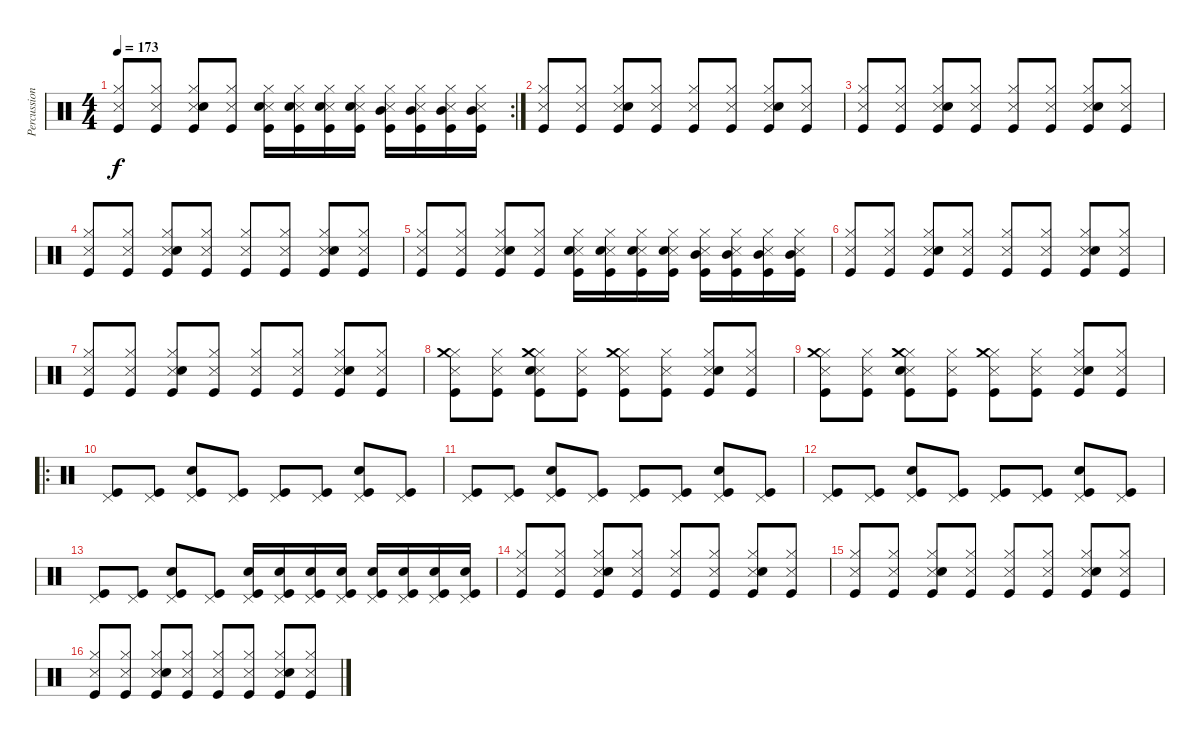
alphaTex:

\track ("Percussion" "Percussion") {instrument percussion}
\staff {score}
\articulation defaults
\rc 2
\ts (4 4)
\tempo 173
\clef neutral
\ks c
("Snare (side stick) 3" "Hi-Hat (closed)" "Kick (hit)").8{dy f} ("Snare (side stick) 3" "Hi-Hat (closed)" "Kick (hit)").8 ("Snare (side stick) 3" "Hi-Hat (closed)" "Snare (hit) 2" "Kick (hit)").8 ("Snare (side stick) 3" "Hi-Hat (closed)" "Kick (hit)").8 ("Snare (side stick) 3" "Hi-Hat (closed)" "Snare (hit) 2" "Kick (hit)").16 ("Snare (side stick) 3" "Hi-Hat (closed)" "Snare (hit) 2" "Kick (hit)").16 ("Snare (side stick) 3" "Hi-Hat (closed)" "Snare (hit) 2" "Kick (hit)").16 ("Snare (side stick) 3" "Hi-Hat (closed)" "Snare (hit) 2" "Kick (hit)").16 ("Snare (side stick) 3" "Hi-Hat (closed)" "Mid Tom (hit)" "Kick (hit)").16 ("Snare (side stick) 3" "Hi-Hat (closed)" "Mid Tom (hit)" "Kick (hit)").16 ("Snare (side stick) 3" "Hi-Hat (closed)" "Mid Tom (hit)" "Kick (hit)").16 ("Snare (side stick) 3" "Hi-Hat (closed)" "Mid Tom (hit)" "Kick (hit)").16 |
("Snare (side stick) 3" "Hi-Hat (closed)" "Kick (hit)").8 ("Snare (side stick) 3" "Hi-Hat (closed)" "Kick (hit)").8 ("Snare (side stick) 3" "Hi-Hat (closed)" "Snare (hit) 2" "Kick (hit)").8 ("Snare (side stick) 3" "Hi-Hat (closed)" "Kick (hit)").8 ("Snare (side stick) 3" "Hi-Hat (closed)" "Kick (hit)").8 ("Snare (side stick) 3" "Hi-Hat (closed)" "Kick (hit)").8 ("Snare (side stick) 3" "Hi-Hat (closed)" "Snare (hit) 2" "Kick (hit)").8 ("Snare (side stick) 3" "Hi-Hat (closed)" "Kick (hit)").8 |
("Snare (side stick) 3" "Hi-Hat (closed)" "Kick (hit)").8 ("Snare (side stick) 3" "Hi-Hat (closed)" "Kick (hit)").8 ("Snare (side stick) 3" "Hi-Hat (closed)" "Snare (hit) 2" "Kick (hit)").8 ("Snare (side stick) 3" "Hi-Hat (closed)" "Kick (hit)").8 ("Snare (side stick) 3" "Hi-Hat (closed)" "Kick (hit)").8 ("Snare (side stick) 3" "Hi-Hat (closed)" "Kick (hit)").8 ("Snare (side stick) 3" "Hi-Hat (closed)" "Snare (hit) 2" "Kick (hit)").8 ("Snare (side stick) 3" "Hi-Hat (closed)" "Kick (hit)").8 |
("Snare (side stick) 3" "Hi-Hat (closed)" "Kick (hit)").8 ("Snare (side stick) 3" "Hi-Hat (closed)" "Kick (hit)").8 ("Snare (side stick) 3" "Hi-Hat (closed)" "Snare (hit) 2" "Kick (hit)").8 ("Snare (side stick) 3" "Hi-Hat (closed)" "Kick (hit)").8 ("Snare (side stick) 3" "Hi-Hat (closed)" "Kick (hit)").8 ("Snare (side stick) 3" "Hi-Hat (closed)" "Kick (hit)").8 ("Snare (side stick) 3" "Hi-Hat (closed)" "Snare (hit) 2" "Kick (hit)").8 ("Snare (side stick) 3" "Hi-Hat (closed)" "Kick (hit)").8 |
("Snare (side stick) 3" "Hi-Hat (closed)" "Kick (hit)").8 ("Snare (side stick) 3" "Hi-Hat (closed)" "Kick (hit)").8 ("Snare (side stick) 3" "Hi-Hat (closed)" "Snare (hit) 2" "Kick (hit)").8 ("Snare (side stick) 3" "Hi-Hat (closed)" "Kick (hit)").8 ("Snare (side stick) 3" "Hi-Hat (closed)" "Snare (hit) 2" "Kick (hit)").16 ("Snare (side stick) 3" "Hi-Hat (closed)" "Snare (hit) 2" "Kick (hit)").16 ("Snare (side stick) 3" "Hi-Hat (closed)" "Snare (hit) 2" "Kick (hit)").16 ("Snare (side stick) 3" "Hi-Hat (closed)" "Snare (hit) 2" "Kick (hit)").16 ("Snare (side stick) 3" "Hi-Hat (closed)" "Mid Tom (hit)" "Kick (hit)").16 ("Snare (side stick) 3" "Hi-Hat (closed)" "Mid Tom (hit)" "Kick (hit)").16 ("Snare (side stick) 3" "Hi-Hat (closed)" "Mid Tom (hit)" "Kick (hit)").16 ("Snare (side stick) 3" "Hi-Hat (closed)" "Mid Tom (hit)" "Kick (hit)").16 |
("Snare (side stick) 3" "Hi-Hat (closed)" "Kick (hit)").8 ("Snare (side stick) 3" "Hi-Hat (closed)" "Kick (hit)").8 ("Snare (side stick) 3" "Hi-Hat (closed)" "Snare (hit) 2" "Kick (hit)").8 ("Snare (side stick) 3" "Hi-Hat (closed)" "Kick (hit)").8 ("Snare (side stick) 3" "Hi-Hat (closed)" "Kick (hit)").8 ("Snare (side stick) 3" "Hi-Hat (closed)" "Kick (hit)").8 ("Snare (side stick) 3" "Hi-Hat (closed)" "Snare (hit) 2" "Kick (hit)").8 ("Snare (side stick) 3" "Hi-Hat (closed)" "Kick (hit)").8 |
("Snare (side stick) 3" "Hi-Hat (closed)" "Kick (hit)").8 ("Snare (side stick) 3" "Hi-Hat (closed)" "Kick (hit)").8 ("Snare (side stick) 3" "Hi-Hat (closed)" "Snare (hit) 2" "Kick (hit)").8 ("Snare (side stick) 3" "Hi-Hat (closed)" "Kick (hit)").8 ("Snare (side stick) 3" "Hi-Hat (closed)" "Kick (hit)").8 ("Snare (side stick) 3" "Hi-Hat (closed)" "Kick (hit)").8 ("Snare (side stick) 3" "Hi-Hat (closed)" "Snare (hit) 2" "Kick (hit)").8 ("Snare (side stick) 3" "Hi-Hat (closed)" "Kick (hit)").8 |
("Snare (side stick) 3" "Hi-Hat (closed)" "Crash medium (hit)" "Kick (hit)").8 ("Snare (side stick) 3" "Hi-Hat (closed)" "Kick (hit)").8 ("Snare (side stick) 3" "Hi-Hat (closed)" "Crash medium (hit)" "Snare (hit) 2" "Kick (hit)").8 ("Snare (side stick) 3" "Hi-Hat (closed)" "Kick (hit)").8 ("Snare (side stick) 3" "Hi-Hat (closed)" "Crash medium (hit)" "Kick (hit)").8 ("Snare (side stick) 3" "Hi-Hat (closed)" "Kick (hit)").8 ("Snare (side stick) 3" "Hi-Hat (closed)" "Snare (hit) 2" "Kick (hit)").8 ("Snare (side stick) 3" "Hi-Hat (closed)" "Kick (hit)").8 |
("Snare (side stick) 3" "Hi-Hat (closed)" "Crash medium (hit)" "Kick (hit)").8 ("Snare (side stick) 3" "Hi-Hat (closed)" "Kick (hit)").8 ("Snare (side stick) 3" "Hi-Hat (closed)" "Crash medium (hit)" "Snare (hit) 2" "Kick (hit)").8 ("Snare (side stick) 3" "Hi-Hat (closed)" "Kick (hit)").8 ("Snare (side stick) 3" "Hi-Hat (closed)" "Crash medium (hit)" "Kick (hit)").8 ("Snare (side stick) 3" "Hi-Hat (closed)" "Kick (hit)").8 ("Snare (side stick) 3" "Hi-Hat (closed)" "Snare (hit) 2" "Kick (hit)").8 ("Snare (side stick) 3" "Hi-Hat (closed)" "Kick (hit)").8 |
\ro
("Pedal Hi-Hat (hit)" "Kick (hit)").8 ("Pedal Hi-Hat (hit)" "Kick (hit)").8 ("Pedal Hi-Hat (hit)" "Snare (hit) 2" "Kick (hit)").8 ("Pedal Hi-Hat (hit)" "Kick (hit)").8 ("Pedal Hi-Hat (hit)" "Kick (hit)").8 ("Pedal Hi-Hat (hit)" "Kick (hit)").8 ("Pedal Hi-Hat (hit)" "Snare (hit) 2" "Kick (hit)").8 ("Pedal Hi-Hat (hit)" "Kick (hit)").8 |
("Pedal Hi-Hat (hit)" "Kick (hit)").8 ("Pedal Hi-Hat (hit)" "Kick (hit)").8 ("Pedal Hi-Hat (hit)" "Snare (hit) 2" "Kick (hit)").8 ("Pedal Hi-Hat (hit)" "Kick (hit)").8 ("Pedal Hi-Hat (hit)" "Kick (hit)").8 ("Pedal Hi-Hat (hit)" "Kick (hit)").8 ("Pedal Hi-Hat (hit)" "Snare (hit) 2" "Kick (hit)").8 ("Pedal Hi-Hat (hit)" "Kick (hit)").8 |
("Pedal Hi-Hat (hit)" "Kick (hit)").8 ("Pedal Hi-Hat (hit)" "Kick (hit)").8 ("Pedal Hi-Hat (hit)" "Snare (hit) 2" "Kick (hit)").8 ("Pedal Hi-Hat (hit)" "Kick (hit)").8 ("Pedal Hi-Hat (hit)" "Kick (hit)").8 ("Pedal Hi-Hat (hit)" "Kick (hit)").8 ("Pedal Hi-Hat (hit)" "Snare (hit) 2" "Kick (hit)").8 ("Pedal Hi-Hat (hit)" "Kick (hit)").8 |
("Pedal Hi-Hat (hit)" "Kick (hit)").8 ("Pedal Hi-Hat (hit)" "Kick (hit)").8 ("Pedal Hi-Hat (hit)" "Snare (hit) 2" "Kick (hit)").8 ("Pedal Hi-Hat (hit)" "Kick (hit)").8 ("Pedal Hi-Hat (hit)" "Snare (hit) 2" "Kick (hit)").16 ("Pedal Hi-Hat (hit)" "Snare (hit) 2" "Kick (hit)").16 ("Pedal Hi-Hat (hit)" "Snare (hit) 2" "Kick (hit)").16 ("Pedal Hi-Hat (hit)" "Snare (hit) 2" "Kick (hit)").16 ("Pedal Hi-Hat (hit)" "Snare (hit) 2" "Kick (hit)").16 ("Pedal Hi-Hat (hit)" "Snare (hit) 2" "Kick (hit)").16 ("Pedal Hi-Hat (hit)" "Snare (hit) 2" "Kick (hit)").16 ("Pedal Hi-Hat (hit)" "Snare (hit) 2" "Kick (hit)").16 |
("Snare (side stick) 3" "Hi-Hat (closed)" "Kick (hit)").8 ("Snare (side stick) 3" "Hi-Hat (closed)" "Kick (hit)").8 ("Snare (side stick) 3" "Hi-Hat (closed)" "Snare (hit) 2" "Kick (hit)").8 ("Snare (side stick) 3" "Hi-Hat (closed)" "Kick (hit)").8 ("Snare (side stick) 3" "Hi-Hat (closed)" "Kick (hit)").8 ("Snare (side stick) 3" "Hi-Hat (closed)" "Kick (hit)").8 ("Snare (side stick) 3" "Hi-Hat (closed)" "Snare (hit) 2" "Kick (hit)").8 ("Snare (side stick) 3" "Hi-Hat (closed)" "Kick (hit)").8 |
("Snare (side stick) 3" "Hi-Hat (closed)" "Kick (hit)").8 ("Snare (side stick) 3" "Hi-Hat (closed)" "Kick (hit)").8 ("Snare (side stick) 3" "Hi-Hat (closed)" "Snare (hit) 2" "Kick (hit)").8 ("Snare (side stick) 3" "Hi-Hat (closed)" "Kick (hit)").8 ("Snare (side stick) 3" "Hi-Hat (closed)" "Kick (hit)").8 ("Snare (side stick) 3" "Hi-Hat (closed)" "Kick (hit)").8 ("Snare (side stick) 3" "Hi-Hat (closed)" "Snare (hit) 2" "Kick (hit)").8 ("Snare (side stick) 3" "Hi-Hat (closed)" "Kick (hit)").8 |
("Snare (side stick) 3" "Hi-Hat (closed)" "Kick (hit)").8 ("Snare (side stick) 3" "Hi-Hat (closed)" "Kick (hit)").8 ("Snare (side stick) 3" "Hi-Hat (closed)" "Snare (hit) 2" "Kick (hit)").8 ("Snare (side stick) 3" "Hi-Hat (closed)" "Kick (hit)").8 ("Snare (side stick) 3" "Hi-Hat (closed)" "Kick (hit)").8 ("Snare (side stick) 3" "Hi-Hat (closed)" "Kick (hit)").8 ("Snare (side stick) 3" "Hi-Hat (closed)" "Snare (hit) 2" "Kick (hit)").8 ("Snare (side stick) 3" "Hi-Hat (closed)" "Kick (hit)").8
